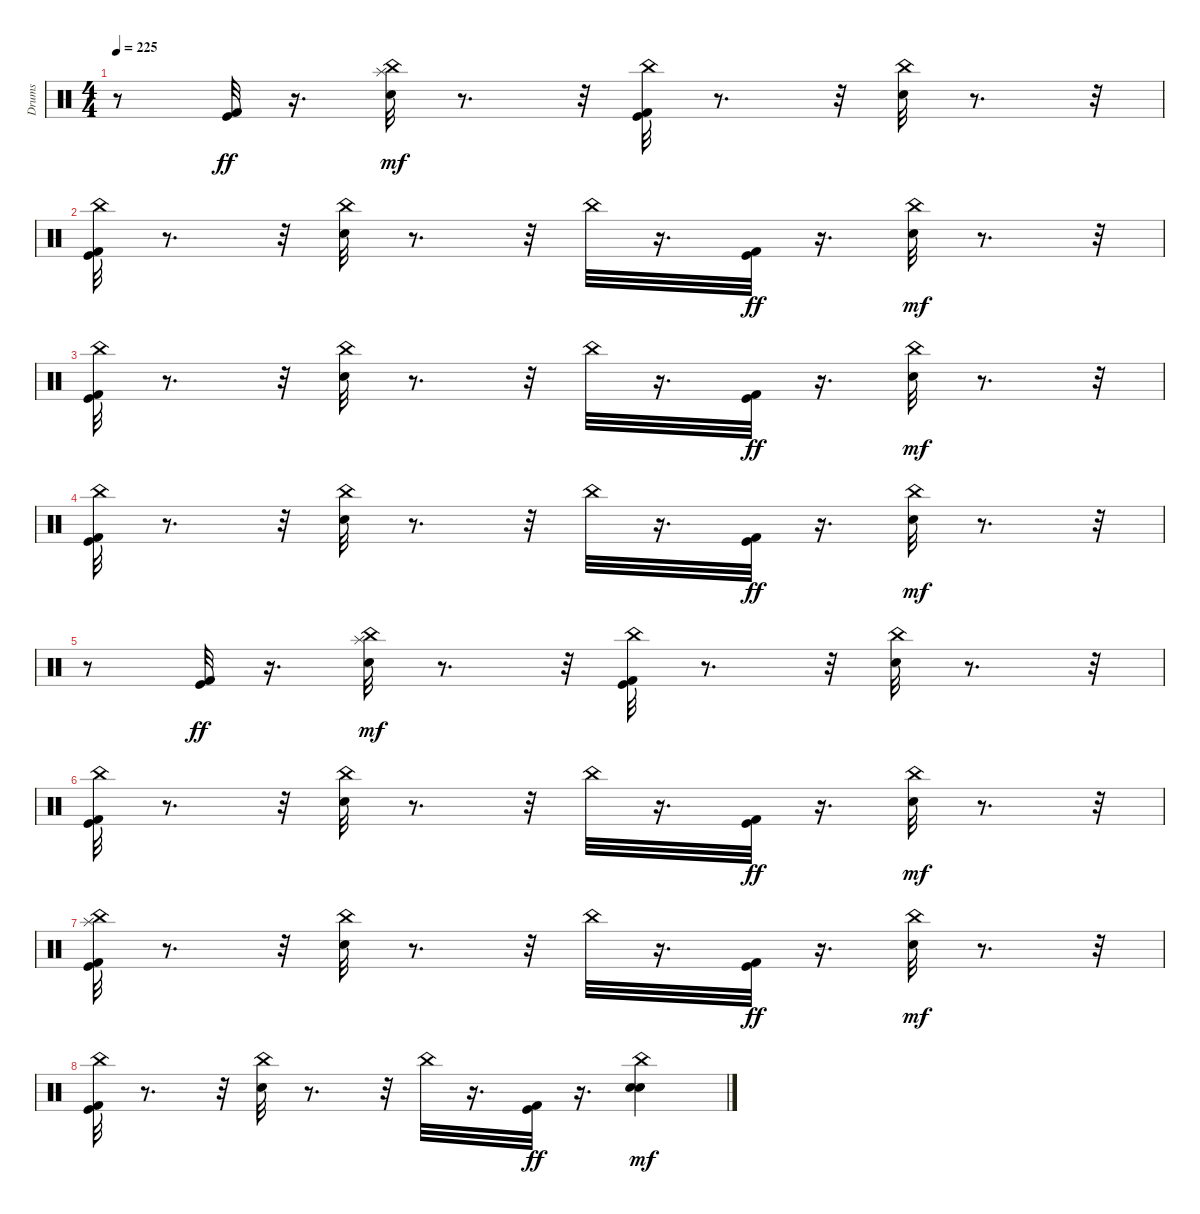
\track ("Drums" "Drums") {instrument percussion}
\staff {score}
\articulation defaults
\ts (4 4)
\tempo 225
\clef neutral
\ks c
r.8{dy mf} ("Kick (hit) 2" "Kick (hit)").32{dy ff} r.16{d} ("Snare (hit) 2" "Splash (hit)" "China (hit)").32{dy mf} r.8{d} r.32 ("Kick (hit) 2" "Kick (hit)" "China (hit)").32 r.8{d} r.32 ("Snare (hit) 2" "China (hit)").32 r.8{d} r.32 |
("Kick (hit) 2" "Kick (hit)" "China (hit)").32 r.8{d} r.32 ("Snare (hit) 2" "China (hit)").32 r.8{d} r.32 "China (hit)".32 r.16{d} ("Kick (hit) 2" "Kick (hit)").32{dy ff} r.16{d} ("Snare (hit) 2" "China (hit)").32{dy mf} r.8{d} r.32 |
("Kick (hit) 2" "Kick (hit)" "China (hit)").32 r.8{d} r.32 ("Snare (hit) 2" "China (hit)").32 r.8{d} r.32 "China (hit)".32 r.16{d} ("Kick (hit) 2" "Kick (hit)").32{dy ff} r.16{d} ("Snare (hit) 2" "China (hit)").32{dy mf} r.8{d} r.32 |
("Kick (hit) 2" "Kick (hit)" "China (hit)").32 r.8{d} r.32 ("Snare (hit) 2" "China (hit)").32 r.8{d} r.32 "China (hit)".32 r.16{d} ("Kick (hit) 2" "Kick (hit)").32{dy ff} r.16{d} ("Snare (hit) 2" "China (hit)").32{dy mf} r.8{d} r.32 |
r.8 ("Kick (hit) 2" "Kick (hit)").32{dy ff} r.16{d} ("Snare (hit) 2" "Splash (hit)" "China (hit)").32{dy mf} r.8{d} r.32 ("Kick (hit) 2" "Kick (hit)" "China (hit)").32 r.8{d} r.32 ("Snare (hit) 2" "China (hit)").32 r.8{d} r.32 |
("Kick (hit) 2" "Kick (hit)" "China (hit)").32 r.8{d} r.32 ("Snare (hit) 2" "China (hit)").32 r.8{d} r.32 "China (hit)".32 r.16{d} ("Kick (hit) 2" "Kick (hit)").32{dy ff} r.16{d} ("Snare (hit) 2" "China (hit)").32{dy mf} r.8{d} r.32 |
("Kick (hit) 2" "Kick (hit)" "China (hit)" "Splash (hit)").32 r.8{d} r.32 ("Snare (hit) 2" "China (hit)").32 r.8{d} r.32 "China (hit)".32 r.16{d} ("Kick (hit) 2" "Kick (hit)").32{dy ff} r.16{d} ("Snare (hit) 2" "China (hit)").32{dy mf} r.8{d} r.32 |
("Kick (hit) 2" "Kick (hit)" "China (hit)").32 r.8{d} r.32 ("Snare (hit) 2" "China (hit)").32 r.8{d} r.32 "China (hit)".32 r.16{d} ("Kick (hit) 2" "Kick (hit)").32{dy ff} r.16{d} ("Snare (hit) 2" "China (hit)" "Snare (hit) 2").4{dy mf}
